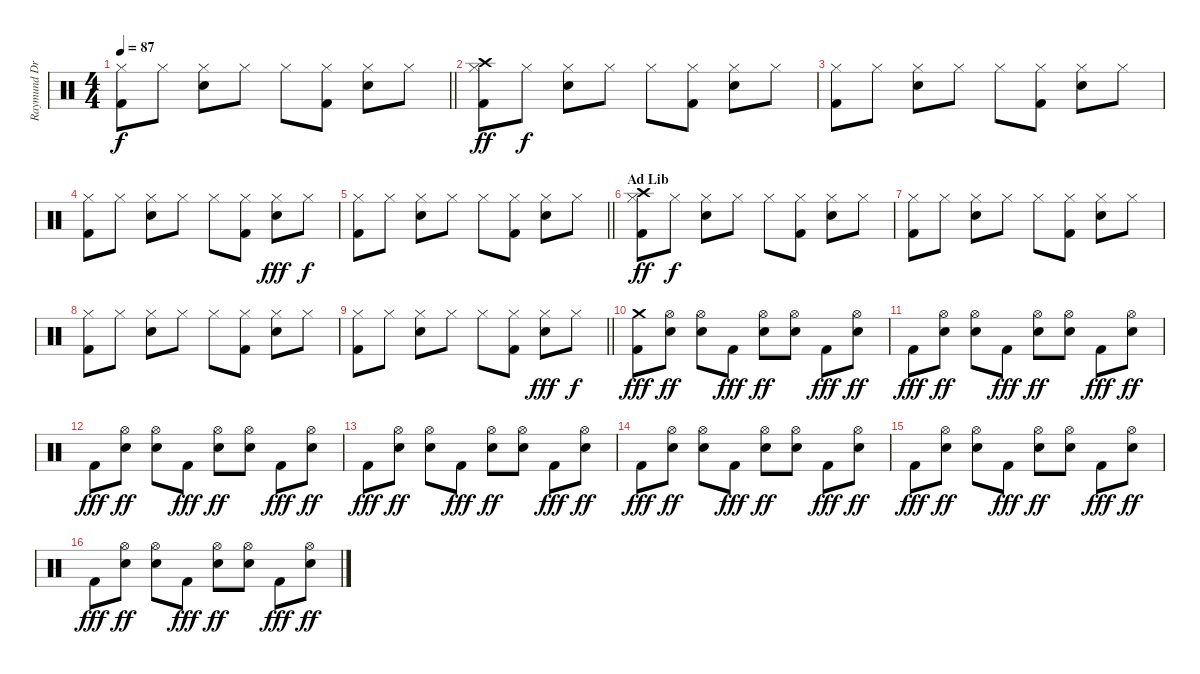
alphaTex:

\track ("Raymund Drums" "Raymund Dr") {instrument percussion}
\staff {score}
\articulation defaults
\ts (4 4)
\tempo 87
\clef neutral
\barLineRight lightlight
\ks c
("Hi-Hat (closed)" "Kick (hit) 2").8{dy f} "Hi-Hat (closed)".8 ("Hi-Hat (closed)" "Snare (hit) 2").8 "Hi-Hat (closed)".8 "Hi-Hat (closed)".8 ("Hi-Hat (closed)" "Kick (hit) 2").8 ("Hi-Hat (closed)" "Snare (hit) 2").8 "Hi-Hat (closed)".8 |
("Hi-Hat (closed)" "Kick (hit) 2" "Crash high (hit)").8{dy ff} "Hi-Hat (closed)".8{dy f} ("Hi-Hat (closed)" "Snare (hit) 2").8 "Hi-Hat (closed)".8 "Hi-Hat (closed)".8 ("Hi-Hat (closed)" "Kick (hit) 2").8 ("Hi-Hat (closed)" "Snare (hit) 2").8 "Hi-Hat (closed)".8 |
("Hi-Hat (closed)" "Kick (hit) 2").8 "Hi-Hat (closed)".8 ("Hi-Hat (closed)" "Snare (hit) 2").8 "Hi-Hat (closed)".8 "Hi-Hat (closed)".8 ("Hi-Hat (closed)" "Kick (hit) 2").8 ("Hi-Hat (closed)" "Snare (hit) 2").8 "Hi-Hat (closed)".8 |
("Hi-Hat (closed)" "Kick (hit) 2").8 "Hi-Hat (closed)".8 ("Hi-Hat (closed)" "Snare (hit) 2").8 "Hi-Hat (closed)".8 "Hi-Hat (closed)".8 ("Hi-Hat (closed)" "Kick (hit) 2").8 ("Hi-Hat (closed)" "Snare (hit) 2").8{dy fff} "Hi-Hat (closed)".8{dy f} |
\barLineRight lightlight
("Hi-Hat (closed)" "Kick (hit) 2").8 "Hi-Hat (closed)".8 ("Hi-Hat (closed)" "Snare (hit) 2").8 "Hi-Hat (closed)".8 "Hi-Hat (closed)".8 ("Hi-Hat (closed)" "Kick (hit) 2").8 ("Hi-Hat (closed)" "Snare (hit) 2").8 "Hi-Hat (closed)".8 |
\section ("" "Ad Lib")
("Hi-Hat (closed)" "Kick (hit) 2" "Crash high (hit)").8{dy ff} "Hi-Hat (closed)".8{dy f} ("Hi-Hat (closed)" "Snare (hit) 2").8 "Hi-Hat (closed)".8 "Hi-Hat (closed)".8 ("Hi-Hat (closed)" "Kick (hit) 2").8 ("Hi-Hat (closed)" "Snare (hit) 2").8 "Hi-Hat (closed)".8 |
("Hi-Hat (closed)" "Kick (hit) 2").8 "Hi-Hat (closed)".8 ("Hi-Hat (closed)" "Snare (hit) 2").8 "Hi-Hat (closed)".8 "Hi-Hat (closed)".8 ("Hi-Hat (closed)" "Kick (hit) 2").8 ("Hi-Hat (closed)" "Snare (hit) 2").8 "Hi-Hat (closed)".8 |
("Hi-Hat (closed)" "Kick (hit) 2").8 "Hi-Hat (closed)".8 ("Hi-Hat (closed)" "Snare (hit) 2").8 "Hi-Hat (closed)".8 "Hi-Hat (closed)".8 ("Hi-Hat (closed)" "Kick (hit) 2").8 ("Hi-Hat (closed)" "Snare (hit) 2").8 "Hi-Hat (closed)".8 |
\barLineRight lightlight
("Hi-Hat (closed)" "Kick (hit) 2").8 "Hi-Hat (closed)".8 ("Hi-Hat (closed)" "Snare (hit) 2").8 "Hi-Hat (closed)".8 "Hi-Hat (closed)".8 ("Hi-Hat (closed)" "Kick (hit) 2").8 ("Hi-Hat (closed)" "Snare (hit) 2").8{dy fff} "Hi-Hat (closed)".8{dy f} |
("Kick (hit) 2" "Crash medium (hit)").8{dy fff} ("Hi-Hat (open)" "Snare (hit) 2").8{dy ff} ("Hi-Hat (open)" "Snare (hit) 2").8 "Kick (hit) 2".8{dy fff} ("Hi-Hat (open)" "Snare (hit) 2").8{dy ff} ("Hi-Hat (open)" "Snare (hit) 2").8 "Kick (hit) 2".8{dy fff} ("Hi-Hat (open)" "Snare (hit) 2").8{dy ff} |
"Kick (hit) 2".8{dy fff} ("Hi-Hat (open)" "Snare (hit) 2").8{dy ff} ("Hi-Hat (open)" "Snare (hit) 2").8 "Kick (hit) 2".8{dy fff} ("Hi-Hat (open)" "Snare (hit) 2").8{dy ff} ("Hi-Hat (open)" "Snare (hit) 2").8 "Kick (hit) 2".8{dy fff} ("Hi-Hat (open)" "Snare (hit) 2").8{dy ff} |
"Kick (hit) 2".8{dy fff} ("Hi-Hat (open)" "Snare (hit) 2").8{dy ff} ("Hi-Hat (open)" "Snare (hit) 2").8 "Kick (hit) 2".8{dy fff} ("Hi-Hat (open)" "Snare (hit) 2").8{dy ff} ("Hi-Hat (open)" "Snare (hit) 2").8 "Kick (hit) 2".8{dy fff} ("Hi-Hat (open)" "Snare (hit) 2").8{dy ff} |
"Kick (hit) 2".8{dy fff} ("Hi-Hat (open)" "Snare (hit) 2").8{dy ff} ("Hi-Hat (open)" "Snare (hit) 2").8 "Kick (hit) 2".8{dy fff} ("Hi-Hat (open)" "Snare (hit) 2").8{dy ff} ("Hi-Hat (open)" "Snare (hit) 2").8 "Kick (hit) 2".8{dy fff} ("Hi-Hat (open)" "Snare (hit) 2").8{dy ff} |
"Kick (hit) 2".8{dy fff} ("Hi-Hat (open)" "Snare (hit) 2").8{dy ff} ("Hi-Hat (open)" "Snare (hit) 2").8 "Kick (hit) 2".8{dy fff} ("Hi-Hat (open)" "Snare (hit) 2").8{dy ff} ("Hi-Hat (open)" "Snare (hit) 2").8 "Kick (hit) 2".8{dy fff} ("Hi-Hat (open)" "Snare (hit) 2").8{dy ff} |
"Kick (hit) 2".8{dy fff} ("Hi-Hat (open)" "Snare (hit) 2").8{dy ff} ("Hi-Hat (open)" "Snare (hit) 2").8 "Kick (hit) 2".8{dy fff} ("Hi-Hat (open)" "Snare (hit) 2").8{dy ff} ("Hi-Hat (open)" "Snare (hit) 2").8 "Kick (hit) 2".8{dy fff} ("Hi-Hat (open)" "Snare (hit) 2").8{dy ff} |
"Kick (hit) 2".8{dy fff} ("Hi-Hat (open)" "Snare (hit) 2").8{dy ff} ("Hi-Hat (open)" "Snare (hit) 2").8 "Kick (hit) 2".8{dy fff} ("Hi-Hat (open)" "Snare (hit) 2").8{dy ff} ("Hi-Hat (open)" "Snare (hit) 2").8 "Kick (hit) 2".8{dy fff} ("Hi-Hat (open)" "Snare (hit) 2").8{dy ff}
